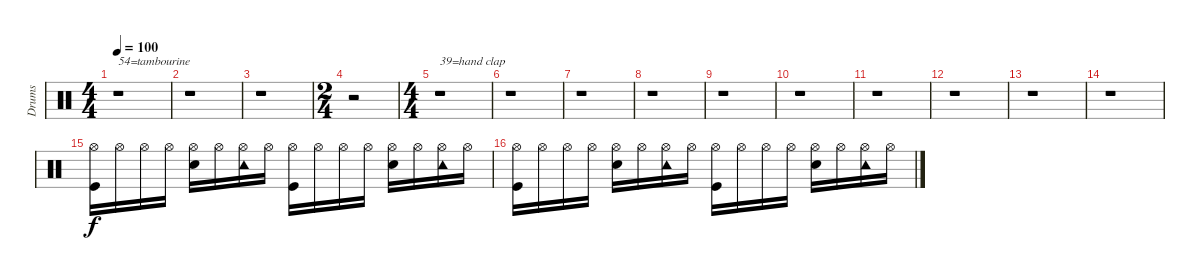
\track ("Drums" "Drums") {instrument percussion}
\staff {score}
\articulation defaults
\ts (4 4)
\tempo 100
\clef neutral
\ks c
r.1{txt "54=tambourine" dy f} |
r.1 |
r.1 |
\ts (2 4)
r.2 |
\ts (4 4)
r.1{txt "39=hand clap"} |
r.1 |
r.1 |
r.1 |
r.1 |
r.1 |
r.1 |
r.1 |
r.1 |
r.1 |
("Hi-Hat (open)" "Kick (hit)").16 "Hi-Hat (open)".16 "Hi-Hat (open)".16 "Hi-Hat (open)".16 ("Hi-Hat (open)" "Snare (hit) 2").16 "Hi-Hat (open)".16 ("Hi-Hat (open)" "Tambourine (hit)").16 "Hi-Hat (open)".16 ("Hi-Hat (open)" "Kick (hit)").16 "Hi-Hat (open)".16 "Hi-Hat (open)".16 "Hi-Hat (open)".16 ("Hi-Hat (open)" "Snare (hit) 2").16 "Hi-Hat (open)".16 ("Hi-Hat (open)" "Tambourine (hit)").16 "Hi-Hat (open)".16 |
("Hi-Hat (open)" "Kick (hit)").16 "Hi-Hat (open)".16 "Hi-Hat (open)".16 "Hi-Hat (open)".16 ("Hi-Hat (open)" "Snare (hit) 2").16 "Hi-Hat (open)".16 ("Hi-Hat (open)" "Tambourine (hit)").16 "Hi-Hat (open)".16 ("Hi-Hat (open)" "Kick (hit)").16 "Hi-Hat (open)".16 "Hi-Hat (open)".16 "Hi-Hat (open)".16 ("Hi-Hat (open)" "Snare (hit) 2").16 "Hi-Hat (open)".16 ("Hi-Hat (open)" "Tambourine (hit)").16 "Hi-Hat (open)".16
